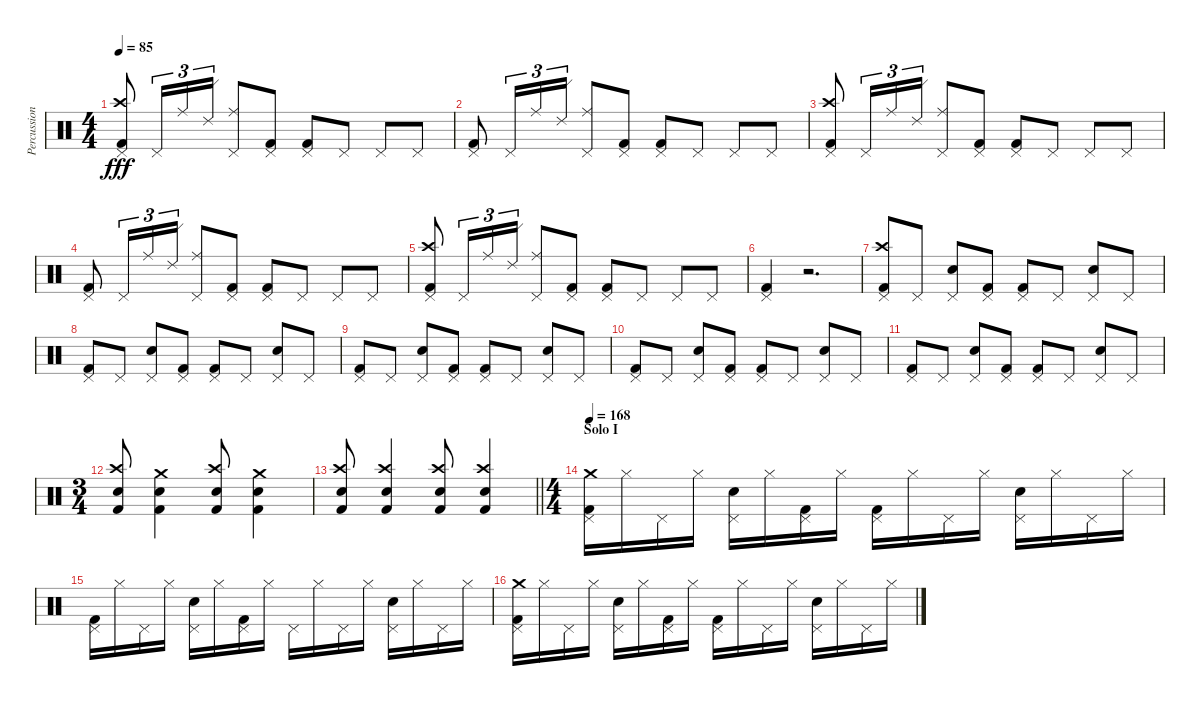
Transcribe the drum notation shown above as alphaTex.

\track ("Percussion" "Percussion") {instrument percussion}
\staff {score}
\articulation defaults
\ts (4 4)
\tempo 85
\clef neutral
\ks c
("Kick (hit) 2" "Crash high (hit)" "Pedal Hi-Hat (hit)").8{dy fff} "Pedal Hi-Hat (hit)".16{tu (3 2)} "Ride (middle)".16{tu (3 2)} "Ride (edge) 2".16{tu (3 2)} ("Ride (middle)" "Pedal Hi-Hat (hit)").8 ("Kick (hit) 2" "Pedal Hi-Hat (hit)").8 ("Kick (hit) 2" "Pedal Hi-Hat (hit)").8 "Pedal Hi-Hat (hit)".8 "Pedal Hi-Hat (hit)".8 "Pedal Hi-Hat (hit)".8 |
("Kick (hit) 2" "Pedal Hi-Hat (hit)").8 "Pedal Hi-Hat (hit)".16{tu (3 2)} "Ride (middle)".16{tu (3 2)} "Ride (edge) 2".16{tu (3 2)} ("Ride (middle)" "Pedal Hi-Hat (hit)").8 ("Kick (hit) 2" "Pedal Hi-Hat (hit)").8 ("Kick (hit) 2" "Pedal Hi-Hat (hit)").8 "Pedal Hi-Hat (hit)".8 "Pedal Hi-Hat (hit)".8 "Pedal Hi-Hat (hit)".8 |
("Kick (hit) 2" "Crash high (hit)" "Pedal Hi-Hat (hit)").8 "Pedal Hi-Hat (hit)".16{tu (3 2)} "Ride (middle)".16{tu (3 2)} "Ride (edge) 2".16{tu (3 2)} ("Ride (middle)" "Pedal Hi-Hat (hit)").8 ("Kick (hit) 2" "Pedal Hi-Hat (hit)").8 ("Kick (hit) 2" "Pedal Hi-Hat (hit)").8 "Pedal Hi-Hat (hit)".8 "Pedal Hi-Hat (hit)".8 "Pedal Hi-Hat (hit)".8 |
("Kick (hit) 2" "Pedal Hi-Hat (hit)").8 "Pedal Hi-Hat (hit)".16{tu (3 2)} "Ride (middle)".16{tu (3 2)} "Ride (edge) 2".16{tu (3 2)} ("Ride (middle)" "Pedal Hi-Hat (hit)").8 ("Kick (hit) 2" "Pedal Hi-Hat (hit)").8 ("Kick (hit) 2" "Pedal Hi-Hat (hit)").8 "Pedal Hi-Hat (hit)".8 "Pedal Hi-Hat (hit)".8 "Pedal Hi-Hat (hit)".8 |
("Kick (hit) 2" "Crash high (hit)" "Pedal Hi-Hat (hit)").8 "Pedal Hi-Hat (hit)".16{tu (3 2)} "Ride (middle)".16{tu (3 2)} "Ride (edge) 2".16{tu (3 2)} ("Ride (middle)" "Pedal Hi-Hat (hit)").8 ("Kick (hit) 2" "Pedal Hi-Hat (hit)").8 ("Kick (hit) 2" "Pedal Hi-Hat (hit)").8 "Pedal Hi-Hat (hit)".8 "Pedal Hi-Hat (hit)".8 "Pedal Hi-Hat (hit)".8 |
("Kick (hit) 2" "Pedal Hi-Hat (hit)").4 r.2{d} |
("Kick (hit) 2" "Crash high (hit)" "Pedal Hi-Hat (hit)").8 "Pedal Hi-Hat (hit)".8 ("Pedal Hi-Hat (hit)" "Snare (hit) 2").8 ("Kick (hit) 2" "Pedal Hi-Hat (hit)").8 ("Kick (hit) 2" "Pedal Hi-Hat (hit)").8 "Pedal Hi-Hat (hit)".8 ("Pedal Hi-Hat (hit)" "Snare (hit) 2").8 "Pedal Hi-Hat (hit)".8 |
("Kick (hit) 2" "Pedal Hi-Hat (hit)").8 "Pedal Hi-Hat (hit)".8 ("Pedal Hi-Hat (hit)" "Snare (hit) 2").8 ("Kick (hit) 2" "Pedal Hi-Hat (hit)").8 ("Kick (hit) 2" "Pedal Hi-Hat (hit)").8 "Pedal Hi-Hat (hit)".8 ("Pedal Hi-Hat (hit)" "Snare (hit) 2").8 "Pedal Hi-Hat (hit)".8 |
("Kick (hit) 2" "Pedal Hi-Hat (hit)").8 "Pedal Hi-Hat (hit)".8 ("Pedal Hi-Hat (hit)" "Snare (hit) 2").8 ("Kick (hit) 2" "Pedal Hi-Hat (hit)").8 ("Kick (hit) 2" "Pedal Hi-Hat (hit)").8 "Pedal Hi-Hat (hit)".8 ("Pedal Hi-Hat (hit)" "Snare (hit) 2").8 "Pedal Hi-Hat (hit)".8 |
("Kick (hit) 2" "Pedal Hi-Hat (hit)").8 "Pedal Hi-Hat (hit)".8 ("Pedal Hi-Hat (hit)" "Snare (hit) 2").8 ("Kick (hit) 2" "Pedal Hi-Hat (hit)").8 ("Kick (hit) 2" "Pedal Hi-Hat (hit)").8 "Pedal Hi-Hat (hit)".8 ("Pedal Hi-Hat (hit)" "Snare (hit) 2").8 "Pedal Hi-Hat (hit)".8 |
("Kick (hit) 2" "Pedal Hi-Hat (hit)").8 "Pedal Hi-Hat (hit)".8 ("Pedal Hi-Hat (hit)" "Snare (hit) 2").8 ("Kick (hit) 2" "Pedal Hi-Hat (hit)").8 ("Kick (hit) 2" "Pedal Hi-Hat (hit)").8 "Pedal Hi-Hat (hit)".8 ("Pedal Hi-Hat (hit)" "Snare (hit) 2").8 "Pedal Hi-Hat (hit)".8 |
\ts (3 4)
("Kick (hit) 2" "Crash high (hit)" "Snare (hit) 2").8 ("Kick (hit) 2" "Crash medium (hit)" "Snare (hit) 2").4 ("Kick (hit) 2" "Crash high (hit)" "Snare (hit) 2").8 ("Kick (hit) 2" "Crash medium (hit)" "Snare (hit) 2").4 |
\barLineRight lightlight
("Kick (hit) 2" "Crash high (hit)" "Snare (hit) 2").8 ("Kick (hit) 2" "Crash high (hit)" "Snare (hit) 2").4 ("Kick (hit) 2" "Crash high (hit)" "Snare (hit) 2").8 ("Kick (hit) 2" "Crash high (hit)" "Snare (hit) 2").4 |
\ts (4 4)
\section ("" "Solo I")
\tempo 168
("Kick (hit) 2" "Crash medium (hit)" "Pedal Hi-Hat (hit)").16 "Hi-Hat (closed)".16 "Pedal Hi-Hat (hit)".16 "Hi-Hat (closed)".16 ("Pedal Hi-Hat (hit)" "Snare (hit) 2").16 "Hi-Hat (closed)".16 ("Kick (hit) 2" "Pedal Hi-Hat (hit)").16 "Hi-Hat (closed)".16 ("Kick (hit) 2" "Pedal Hi-Hat (hit)").16 "Hi-Hat (closed)".16 "Pedal Hi-Hat (hit)".16 "Hi-Hat (closed)".16 ("Pedal Hi-Hat (hit)" "Snare (hit) 2").16 "Hi-Hat (closed)".16 "Pedal Hi-Hat (hit)".16 "Hi-Hat (closed)".16 |
("Kick (hit) 2" "Pedal Hi-Hat (hit)").16 "Hi-Hat (closed)".16 "Pedal Hi-Hat (hit)".16 "Hi-Hat (closed)".16 ("Pedal Hi-Hat (hit)" "Snare (hit) 2").16 "Hi-Hat (closed)".16 ("Kick (hit) 2" "Pedal Hi-Hat (hit)").16 "Hi-Hat (closed)".16 "Pedal Hi-Hat (hit)".16 "Hi-Hat (closed)".16 "Pedal Hi-Hat (hit)".16 "Hi-Hat (closed)".16 ("Pedal Hi-Hat (hit)" "Snare (hit) 2").16 "Hi-Hat (closed)".16 "Pedal Hi-Hat (hit)".16 "Hi-Hat (closed)".16 |
("Kick (hit) 2" "Crash medium (hit)" "Pedal Hi-Hat (hit)").16 "Hi-Hat (closed)".16 "Pedal Hi-Hat (hit)".16 "Hi-Hat (closed)".16 ("Pedal Hi-Hat (hit)" "Snare (hit) 2").16 "Hi-Hat (closed)".16 ("Kick (hit) 2" "Pedal Hi-Hat (hit)").16 "Hi-Hat (closed)".16 ("Kick (hit) 2" "Pedal Hi-Hat (hit)").16 "Hi-Hat (closed)".16 "Pedal Hi-Hat (hit)".16 "Hi-Hat (closed)".16 ("Pedal Hi-Hat (hit)" "Snare (hit) 2").16 "Hi-Hat (closed)".16 "Pedal Hi-Hat (hit)".16 "Hi-Hat (closed)".16
